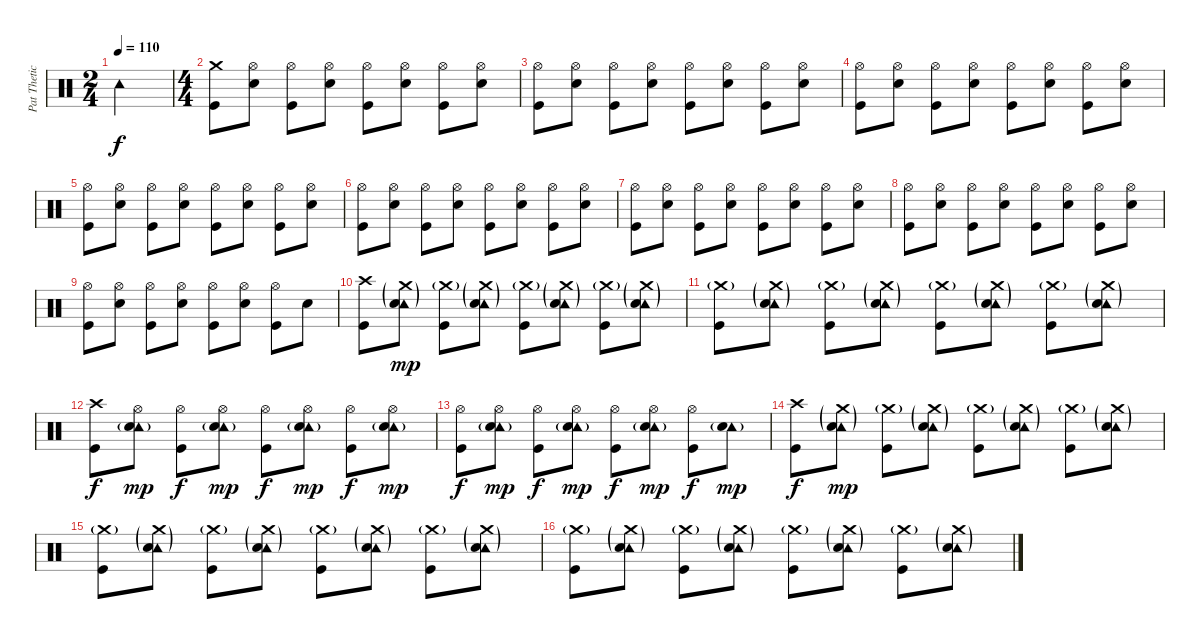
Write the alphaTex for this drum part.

\track ("Pat Thetic Drums" "Pat Thetic") {instrument percussion}
\staff {score}
\articulation defaults
\ts (2 4)
\tempo 110
\clef neutral
\ks c "Tambourine (hit)".2{dy f}
|
\ts (4 4)
("Crash medium (hit)" "Kick (hit)").8 ("Hi-Hat (open)" "Electric Snare (hit)").8 ("Hi-Hat (open)" "Kick (hit)").8 ("Hi-Hat (open)" "Electric Snare (hit)").8 ("Hi-Hat (open)" "Kick (hit)").8 ("Hi-Hat (open)" "Electric Snare (hit)").8 ("Hi-Hat (open)" "Kick (hit)").8 ("Hi-Hat (open)" "Electric Snare (hit)").8 |
("Hi-Hat (open)" "Kick (hit)").8 ("Hi-Hat (open)" "Electric Snare (hit)").8 ("Hi-Hat (open)" "Kick (hit)").8 ("Hi-Hat (open)" "Electric Snare (hit)").8 ("Hi-Hat (open)" "Kick (hit)").8 ("Hi-Hat (open)" "Electric Snare (hit)").8 ("Hi-Hat (open)" "Kick (hit)").8 ("Hi-Hat (open)" "Electric Snare (hit)").8 |
("Hi-Hat (open)" "Kick (hit)").8 ("Hi-Hat (open)" "Electric Snare (hit)").8 ("Hi-Hat (open)" "Kick (hit)").8 ("Hi-Hat (open)" "Electric Snare (hit)").8 ("Hi-Hat (open)" "Kick (hit)").8 ("Hi-Hat (open)" "Electric Snare (hit)").8 ("Hi-Hat (open)" "Kick (hit)").8 ("Hi-Hat (open)" "Electric Snare (hit)").8 |
("Hi-Hat (open)" "Kick (hit)").8 ("Hi-Hat (open)" "Electric Snare (hit)").8 ("Hi-Hat (open)" "Kick (hit)").8 ("Hi-Hat (open)" "Electric Snare (hit)").8 ("Hi-Hat (open)" "Kick (hit)").8 ("Hi-Hat (open)" "Electric Snare (hit)").8 ("Hi-Hat (open)" "Kick (hit)").8 ("Hi-Hat (open)" "Electric Snare (hit)").8 |
("Hi-Hat (open)" "Kick (hit)").8 ("Hi-Hat (open)" "Electric Snare (hit)").8 ("Hi-Hat (open)" "Kick (hit)").8 ("Hi-Hat (open)" "Electric Snare (hit)").8 ("Hi-Hat (open)" "Kick (hit)").8 ("Hi-Hat (open)" "Electric Snare (hit)").8 ("Hi-Hat (open)" "Kick (hit)").8 ("Hi-Hat (open)" "Electric Snare (hit)").8 |
("Hi-Hat (open)" "Kick (hit)").8 ("Hi-Hat (open)" "Electric Snare (hit)").8 ("Hi-Hat (open)" "Kick (hit)").8 ("Hi-Hat (open)" "Electric Snare (hit)").8 ("Hi-Hat (open)" "Kick (hit)").8 ("Hi-Hat (open)" "Electric Snare (hit)").8 ("Hi-Hat (open)" "Kick (hit)").8 ("Hi-Hat (open)" "Electric Snare (hit)").8 |
("Hi-Hat (open)" "Kick (hit)").8 ("Hi-Hat (open)" "Electric Snare (hit)").8 ("Hi-Hat (open)" "Kick (hit)").8 ("Hi-Hat (open)" "Electric Snare (hit)").8 ("Hi-Hat (open)" "Kick (hit)").8 ("Hi-Hat (open)" "Electric Snare (hit)").8 ("Hi-Hat (open)" "Kick (hit)").8 ("Hi-Hat (open)" "Electric Snare (hit)").8 |
("Hi-Hat (open)" "Kick (hit)").8 ("Hi-Hat (open)" "Electric Snare (hit)").8 ("Hi-Hat (open)" "Kick (hit)").8 ("Hi-Hat (open)" "Electric Snare (hit)").8 ("Hi-Hat (open)" "Kick (hit)").8 ("Hi-Hat (open)" "Electric Snare (hit)").8 ("Hi-Hat (open)" "Kick (hit)").8 "Electric Snare (hit)".8 |
("Crash high (hit)" "Kick (hit)").8 ("Tambourine (hit)"{g} "Crash medium (hit)"{g} "Electric Snare (hit)").8{dy mp} ("Crash medium (hit)"{g} "Kick (hit)").8 ("Tambourine (hit)"{g} "Crash medium (hit)"{g} "Electric Snare (hit)").8 ("Crash medium (hit)"{g} "Kick (hit)").8 ("Tambourine (hit)"{g} "Crash medium (hit)"{g} "Electric Snare (hit)").8 ("Crash medium (hit)"{g} "Kick (hit)").8 ("Tambourine (hit)"{g} "Crash medium (hit)"{g} "Electric Snare (hit)").8 |
("Crash medium (hit)"{g} "Kick (hit)").8 ("Tambourine (hit)"{g} "Crash medium (hit)"{g} "Electric Snare (hit)").8 ("Crash medium (hit)"{g} "Kick (hit)").8 ("Tambourine (hit)"{g} "Crash medium (hit)"{g} "Electric Snare (hit)").8 ("Crash medium (hit)"{g} "Kick (hit)").8 ("Tambourine (hit)"{g} "Crash medium (hit)"{g} "Electric Snare (hit)").8 ("Crash medium (hit)"{g} "Kick (hit)").8 ("Tambourine (hit)"{g} "Crash medium (hit)"{g} "Electric Snare (hit)").8 |
("Crash high (hit)" "Kick (hit)").8{dy f} ("Tambourine (hit)"{g} "Hi-Hat (open)" "Electric Snare (hit)").8{dy mp} ("Hi-Hat (open)" "Kick (hit)").8{dy f} ("Tambourine (hit)"{g} "Hi-Hat (open)" "Electric Snare (hit)").8{dy mp} ("Hi-Hat (open)" "Kick (hit)").8{dy f} ("Tambourine (hit)"{g} "Hi-Hat (open)" "Electric Snare (hit)").8{dy mp} ("Hi-Hat (open)" "Kick (hit)").8{dy f} ("Tambourine (hit)"{g} "Hi-Hat (open)" "Electric Snare (hit)").8{dy mp} |
("Hi-Hat (open)" "Kick (hit)").8{dy f} ("Tambourine (hit)"{g} "Hi-Hat (open)" "Electric Snare (hit)").8{dy mp} ("Hi-Hat (open)" "Kick (hit)").8{dy f} ("Tambourine (hit)"{g} "Hi-Hat (open)" "Electric Snare (hit)").8{dy mp} ("Hi-Hat (open)" "Kick (hit)").8{dy f} ("Tambourine (hit)"{g} "Hi-Hat (open)" "Electric Snare (hit)").8{dy mp} ("Hi-Hat (open)" "Kick (hit)").8{dy f} ("Tambourine (hit)"{g} "Electric Snare (hit)").8{dy mp} |
("Crash high (hit)" "Kick (hit)").8{dy f} ("Tambourine (hit)"{g} "Crash medium (hit)"{g} "Electric Snare (hit)").8{dy mp} ("Crash medium (hit)"{g} "Kick (hit)").8 ("Tambourine (hit)"{g} "Crash medium (hit)"{g} "Electric Snare (hit)").8 ("Crash medium (hit)"{g} "Kick (hit)").8 ("Tambourine (hit)"{g} "Crash medium (hit)"{g} "Electric Snare (hit)").8 ("Crash medium (hit)"{g} "Kick (hit)").8 ("Tambourine (hit)"{g} "Crash medium (hit)"{g} "Electric Snare (hit)").8 |
("Crash medium (hit)"{g} "Kick (hit)").8 ("Tambourine (hit)"{g} "Crash medium (hit)"{g} "Electric Snare (hit)").8 ("Crash medium (hit)"{g} "Kick (hit)").8 ("Tambourine (hit)"{g} "Crash medium (hit)"{g} "Electric Snare (hit)").8 ("Crash medium (hit)"{g} "Kick (hit)").8 ("Tambourine (hit)"{g} "Crash medium (hit)"{g} "Electric Snare (hit)").8 ("Crash medium (hit)"{g} "Kick (hit)").8 ("Tambourine (hit)"{g} "Crash medium (hit)"{g} "Electric Snare (hit)").8 |
("Crash medium (hit)"{g} "Kick (hit)").8 ("Tambourine (hit)"{g} "Crash medium (hit)"{g} "Electric Snare (hit)").8 ("Crash medium (hit)"{g} "Kick (hit)").8 ("Tambourine (hit)"{g} "Crash medium (hit)"{g} "Electric Snare (hit)").8 ("Crash medium (hit)"{g} "Kick (hit)").8 ("Tambourine (hit)"{g} "Crash medium (hit)"{g} "Electric Snare (hit)").8 ("Crash medium (hit)"{g} "Kick (hit)").8 ("Tambourine (hit)"{g} "Crash medium (hit)"{g} "Electric Snare (hit)").8
